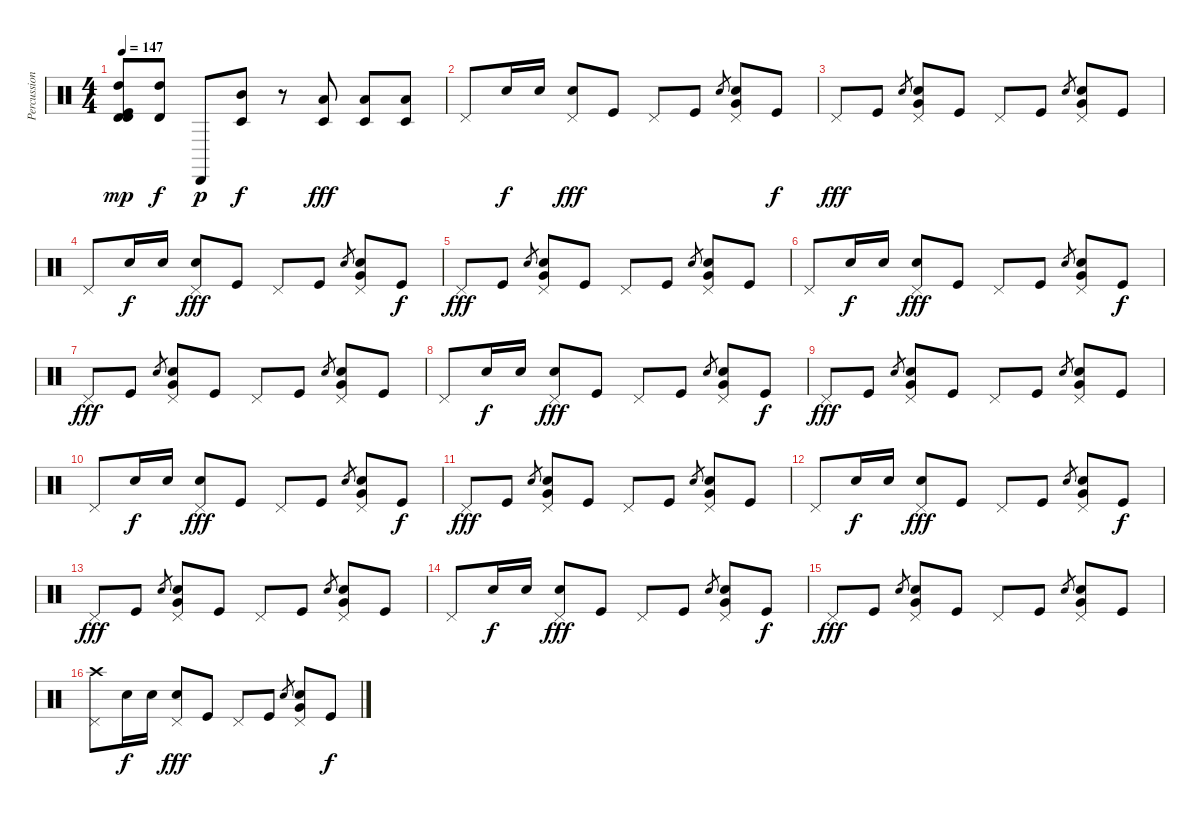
\track ("Percussions" "Percussion") {instrument percussion}
\staff {score}
\articulation defaults
\ts (4 4)
\tempo 147
\clef neutral
\ks c
("Kick (hit)" "Timbale high (hit)" "Timbale high (hit)" "High Tom (hit)").8{dy mp} ("Timbale high (hit)" "High Tom (hit)").8{dy f} "Cabasa (hit)".8{dy p} ("Timbale low (hit)" "Mid Tom (hit)").8{dy f} r.8 ("Low Tom (hit)" "Timbale low (hit)").8{dy fff} ("Timbale low (hit)" "Low Tom (hit)").8 ("Timbale low (hit)" "Low Tom (hit)").8 |
"Pedal Hi-Hat (hit)".8 "Snare (hit) 2".16{dy f} "Snare (hit) 2".16 ("Snare (hit) 2" "Pedal Hi-Hat (hit)").8{dy fff} "Kick (hit)".8 "Pedal Hi-Hat (hit)".8 "Kick (hit)".8 "Snare (hit) 2".8{gr} ("Pedal Hi-Hat (hit)" "Snare (hit) 2" "Very Low Tom (hit)").8 "Kick (hit)".8{dy f} |
"Pedal Hi-Hat (hit)".8{dy fff} "Kick (hit)".8 "Snare (hit) 2".8{gr} ("Pedal Hi-Hat (hit)" "Snare (hit) 2" "Very Low Tom (hit)").8 "Kick (hit)".8 "Pedal Hi-Hat (hit)".8 "Kick (hit)".8 "Snare (hit) 2".8{gr} ("Pedal Hi-Hat (hit)" "Snare (hit) 2" "Very Low Tom (hit)").8 "Kick (hit)".8 |
"Pedal Hi-Hat (hit)".8 "Snare (hit) 2".16{dy f} "Snare (hit) 2".16 ("Snare (hit) 2" "Pedal Hi-Hat (hit)").8{dy fff} "Kick (hit)".8 "Pedal Hi-Hat (hit)".8 "Kick (hit)".8 "Snare (hit) 2".8{gr} ("Pedal Hi-Hat (hit)" "Snare (hit) 2" "Very Low Tom (hit)").8 "Kick (hit)".8{dy f} |
"Pedal Hi-Hat (hit)".8{dy fff} "Kick (hit)".8 "Snare (hit) 2".8{gr} ("Pedal Hi-Hat (hit)" "Snare (hit) 2" "Very Low Tom (hit)").8 "Kick (hit)".8 "Pedal Hi-Hat (hit)".8 "Kick (hit)".8 "Snare (hit) 2".8{gr} ("Pedal Hi-Hat (hit)" "Snare (hit) 2" "Very Low Tom (hit)").8 "Kick (hit)".8 |
"Pedal Hi-Hat (hit)".8 "Snare (hit) 2".16{dy f} "Snare (hit) 2".16 ("Snare (hit) 2" "Pedal Hi-Hat (hit)").8{dy fff} "Kick (hit)".8 "Pedal Hi-Hat (hit)".8 "Kick (hit)".8 "Snare (hit) 2".8{gr} ("Pedal Hi-Hat (hit)" "Snare (hit) 2" "Very Low Tom (hit)").8 "Kick (hit)".8{dy f} |
"Pedal Hi-Hat (hit)".8{dy fff} "Kick (hit)".8 "Snare (hit) 2".8{gr} ("Pedal Hi-Hat (hit)" "Snare (hit) 2" "Very Low Tom (hit)").8 "Kick (hit)".8 "Pedal Hi-Hat (hit)".8 "Kick (hit)".8 "Snare (hit) 2".8{gr} ("Pedal Hi-Hat (hit)" "Snare (hit) 2" "Very Low Tom (hit)").8 "Kick (hit)".8 |
"Pedal Hi-Hat (hit)".8 "Snare (hit) 2".16{dy f} "Snare (hit) 2".16 ("Snare (hit) 2" "Pedal Hi-Hat (hit)").8{dy fff} "Kick (hit)".8 "Pedal Hi-Hat (hit)".8 "Kick (hit)".8 "Snare (hit) 2".8{gr} ("Pedal Hi-Hat (hit)" "Snare (hit) 2" "Very Low Tom (hit)").8 "Kick (hit)".8{dy f} |
"Pedal Hi-Hat (hit)".8{dy fff} "Kick (hit)".8 "Snare (hit) 2".8{gr} ("Pedal Hi-Hat (hit)" "Snare (hit) 2" "Very Low Tom (hit)").8 "Kick (hit)".8 "Pedal Hi-Hat (hit)".8 "Kick (hit)".8 "Snare (hit) 2".8{gr} ("Pedal Hi-Hat (hit)" "Snare (hit) 2" "Very Low Tom (hit)").8 "Kick (hit)".8 |
"Pedal Hi-Hat (hit)".8 "Snare (hit) 2".16{dy f} "Snare (hit) 2".16 ("Snare (hit) 2" "Pedal Hi-Hat (hit)").8{dy fff} "Kick (hit)".8 "Pedal Hi-Hat (hit)".8 "Kick (hit)".8 "Snare (hit) 2".8{gr} ("Pedal Hi-Hat (hit)" "Snare (hit) 2" "Very Low Tom (hit)").8 "Kick (hit)".8{dy f} |
"Pedal Hi-Hat (hit)".8{dy fff} "Kick (hit)".8 "Snare (hit) 2".8{gr} ("Pedal Hi-Hat (hit)" "Snare (hit) 2" "Very Low Tom (hit)").8 "Kick (hit)".8 "Pedal Hi-Hat (hit)".8 "Kick (hit)".8 "Snare (hit) 2".8{gr} ("Pedal Hi-Hat (hit)" "Snare (hit) 2" "Very Low Tom (hit)").8 "Kick (hit)".8 |
"Pedal Hi-Hat (hit)".8 "Snare (hit) 2".16{dy f} "Snare (hit) 2".16 ("Snare (hit) 2" "Pedal Hi-Hat (hit)").8{dy fff} "Kick (hit)".8 "Pedal Hi-Hat (hit)".8 "Kick (hit)".8 "Snare (hit) 2".8{gr} ("Pedal Hi-Hat (hit)" "Snare (hit) 2" "Very Low Tom (hit)").8 "Kick (hit)".8{dy f} |
"Pedal Hi-Hat (hit)".8{dy fff} "Kick (hit)".8 "Snare (hit) 2".8{gr} ("Pedal Hi-Hat (hit)" "Snare (hit) 2" "Very Low Tom (hit)").8 "Kick (hit)".8 "Pedal Hi-Hat (hit)".8 "Kick (hit)".8 "Snare (hit) 2".8{gr} ("Pedal Hi-Hat (hit)" "Snare (hit) 2" "Very Low Tom (hit)").8 "Kick (hit)".8 |
"Pedal Hi-Hat (hit)".8 "Snare (hit) 2".16{dy f} "Snare (hit) 2".16 ("Snare (hit) 2" "Pedal Hi-Hat (hit)").8{dy fff} "Kick (hit)".8 "Pedal Hi-Hat (hit)".8 "Kick (hit)".8 "Snare (hit) 2".8{gr} ("Pedal Hi-Hat (hit)" "Snare (hit) 2" "Very Low Tom (hit)").8 "Kick (hit)".8{dy f} |
"Pedal Hi-Hat (hit)".8{dy fff} "Kick (hit)".8 "Snare (hit) 2".8{gr} ("Pedal Hi-Hat (hit)" "Snare (hit) 2" "Very Low Tom (hit)").8 "Kick (hit)".8 "Pedal Hi-Hat (hit)".8 "Kick (hit)".8 "Snare (hit) 2".8{gr} ("Pedal Hi-Hat (hit)" "Snare (hit) 2" "Very Low Tom (hit)").8 "Kick (hit)".8 |
("Pedal Hi-Hat (hit)" "Crash high (hit)").8 "Snare (hit) 2".16{dy f} "Snare (hit) 2".16 ("Snare (hit) 2" "Pedal Hi-Hat (hit)").8{dy fff} "Kick (hit)".8 "Pedal Hi-Hat (hit)".8 "Kick (hit)".8 "Snare (hit) 2".8{gr} ("Pedal Hi-Hat (hit)" "Snare (hit) 2" "Very Low Tom (hit)").8 "Kick (hit)".8{dy f}
